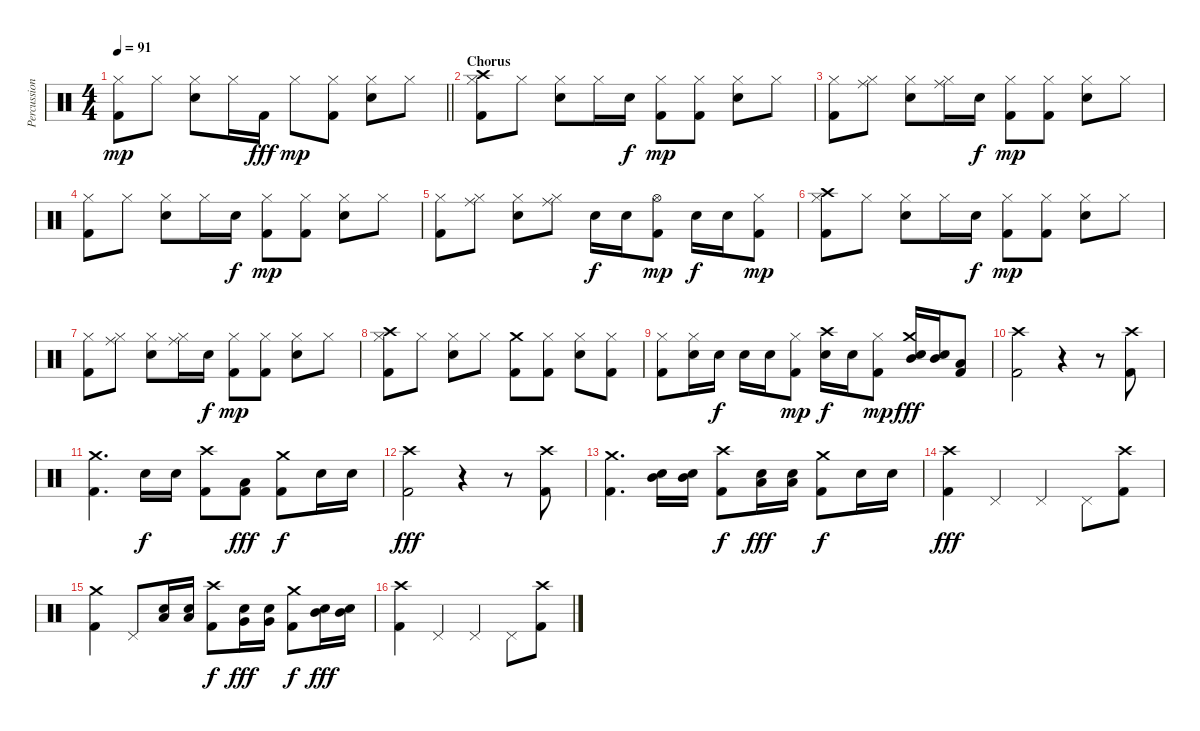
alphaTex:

\track ("Percussion" "Percussion") {instrument percussion}
\staff {score}
\articulation defaults
\ts (4 4)
\tempo 91
\clef neutral
\barLineRight lightlight
\ks c
("Kick (hit) 2" "Hi-Hat (closed)").8{dy mp} "Hi-Hat (closed)".8 ("Electric Snare (hit)" "Hi-Hat (closed)").8 "Hi-Hat (closed)".16 "Kick (hit) 2".16{dy fff} "Hi-Hat (closed)".8{dy mp} ("Kick (hit) 2" "Hi-Hat (closed)").8 ("Electric Snare (hit)" "Hi-Hat (closed)").8 "Hi-Hat (closed)".8 |
\section ("" "Chorus")
("Kick (hit) 2" "Hi-Hat (closed)" "Crash high (hit)").8 "Hi-Hat (closed)".8 ("Electric Snare (hit)" "Hi-Hat (closed)").8 "Hi-Hat (closed)".16 "Electric Snare (hit)".16{dy f} ("Kick (hit) 2" "Hi-Hat (closed)").8{dy mp} ("Kick (hit) 2" "Hi-Hat (closed)").8 ("Electric Snare (hit)" "Hi-Hat (closed)").8 "Hi-Hat (closed)".8 |
("Kick (hit) 2" "Hi-Hat (closed)").8 ("Ride (middle)" "Hi-Hat (closed)").8 ("Electric Snare (hit)" "Hi-Hat (closed)").8 ("Ride (middle)" "Hi-Hat (closed)").16 "Electric Snare (hit)".16{dy f} ("Kick (hit) 2" "Hi-Hat (closed)").8{dy mp} ("Kick (hit) 2" "Hi-Hat (closed)").8 ("Electric Snare (hit)" "Hi-Hat (closed)").8 "Hi-Hat (closed)".8 |
("Kick (hit) 2" "Hi-Hat (closed)").8 "Hi-Hat (closed)".8 ("Electric Snare (hit)" "Hi-Hat (closed)").8 "Hi-Hat (closed)".16 "Electric Snare (hit)".16{dy f} ("Kick (hit) 2" "Hi-Hat (closed)").8{dy mp} ("Kick (hit) 2" "Hi-Hat (closed)").8 ("Electric Snare (hit)" "Hi-Hat (closed)").8 "Hi-Hat (closed)".8 |
("Kick (hit) 2" "Hi-Hat (closed)").8 ("Ride (middle)" "Hi-Hat (closed)").8 ("Electric Snare (hit)" "Hi-Hat (closed)").8 ("Ride (middle)" "Hi-Hat (closed)").8 "Electric Snare (hit)".16{dy f} "Electric Snare (hit)".16 ("Kick (hit) 2" "Hi-Hat (open)").8{dy mp} "Electric Snare (hit)".16{dy f} "Electric Snare (hit)".16 ("Kick (hit) 2" "Hi-Hat (closed)").8{dy mp} |
("Kick (hit) 2" "Hi-Hat (closed)" "Crash high (hit)").8 "Hi-Hat (closed)".8 ("Electric Snare (hit)" "Hi-Hat (closed)").8 "Hi-Hat (closed)".16 "Electric Snare (hit)".16{dy f} ("Kick (hit) 2" "Hi-Hat (closed)").8{dy mp} ("Kick (hit) 2" "Hi-Hat (closed)").8 ("Electric Snare (hit)" "Hi-Hat (closed)").8 "Hi-Hat (closed)".8 |
("Kick (hit) 2" "Hi-Hat (closed)").8 ("Ride (middle)" "Hi-Hat (closed)").8 ("Electric Snare (hit)" "Hi-Hat (closed)").8 ("Ride (middle)" "Hi-Hat (closed)").16 "Electric Snare (hit)".16{dy f} ("Kick (hit) 2" "Hi-Hat (closed)").8{dy mp} ("Kick (hit) 2" "Hi-Hat (closed)").8 ("Electric Snare (hit)" "Hi-Hat (closed)").8 "Hi-Hat (closed)".8 |
("Kick (hit) 2" "Hi-Hat (closed)" "Crash high (hit)").8 "Hi-Hat (closed)".8 ("Electric Snare (hit)" "Hi-Hat (closed)").8 "Hi-Hat (closed)".8 ("Kick (hit) 2" "Crash medium (hit)").8 ("Kick (hit) 2" "Hi-Hat (closed)").8 ("Electric Snare (hit)" "Hi-Hat (closed)").8 ("Kick (hit) 2" "Hi-Hat (closed)").8 |
("Kick (hit) 2" "Hi-Hat (closed)").8 ("Electric Snare (hit)" "Hi-Hat (closed)").16 "Electric Snare (hit)".16{dy f} "Electric Snare (hit)".16 "Electric Snare (hit)".16 ("Kick (hit) 2" "Hi-Hat (closed)").8{dy mp} ("Electric Snare (hit)" "Crash high (hit)").16{dy f} "Electric Snare (hit)".16 ("Kick (hit) 2" "Hi-Hat (closed)").8{dy mp} ("Electric Snare (hit)" "Mid Tom (hit)" "Crash medium (hit)").16{dy fff} ("Electric Snare (hit)" "Mid Tom (hit)").16 ("Kick (hit) 2" "Low Tom (hit)").8 |
("Kick (hit) 2" "Crash high (hit)").2 r.4 r.8 ("Kick (hit) 2" "Crash high (hit)").8 |
("Kick (hit) 2" "Crash medium (hit)").4{d} "Electric Snare (hit)".16{dy f} "Electric Snare (hit)".16 ("Kick (hit) 2" "Crash high (hit)").8 ("Kick (hit) 2" "Low Tom (hit)").8{dy fff} ("Kick (hit) 2" "Crash medium (hit)").8{dy f} "Electric Snare (hit)".16 "Electric Snare (hit)".16 |
("Kick (hit) 2" "Crash high (hit)").2{dy fff} r.4 r.8 ("Kick (hit) 2" "Crash high (hit)").8 |
("Kick (hit) 2" "Crash medium (hit)").4{d} ("Electric Snare (hit)" "Mid Tom (hit)").16 ("Electric Snare (hit)" "Mid Tom (hit)").16 ("Kick (hit) 2" "Crash high (hit)").8{dy f} ("Electric Snare (hit)" "Low Tom (hit)").16{dy fff} ("Electric Snare (hit)" "Low Tom (hit)").16 ("Kick (hit) 2" "Crash medium (hit)").8{dy f} "Electric Snare (hit)".16 "Electric Snare (hit)".16 |
("Kick (hit) 2" "Crash high (hit)").4{dy fff} "Pedal Hi-Hat (hit)".4 "Pedal Hi-Hat (hit)".4 "Pedal Hi-Hat (hit)".8 ("Kick (hit) 2" "Crash high (hit)").8 |
("Kick (hit) 2" "Crash medium (hit)").4 "Pedal Hi-Hat (hit)".8 ("Electric Snare (hit)" "Low Tom (hit)").16 ("Electric Snare (hit)" "Low Tom (hit)").16 ("Kick (hit) 2" "Crash high (hit)").8{dy f} ("Electric Snare (hit)" "Very Low Tom (hit)").16{dy fff} ("Electric Snare (hit)" "Very Low Tom (hit)").16 ("Kick (hit) 2" "Crash medium (hit)").8{dy f} ("Electric Snare (hit)" "Mid Tom (hit)").16{dy fff} ("Electric Snare (hit)" "Mid Tom (hit)").16 |
("Kick (hit) 2" "Crash high (hit)").4 "Pedal Hi-Hat (hit)".4 "Pedal Hi-Hat (hit)".4 "Pedal Hi-Hat (hit)".8 ("Kick (hit) 2" "Crash high (hit)").8
